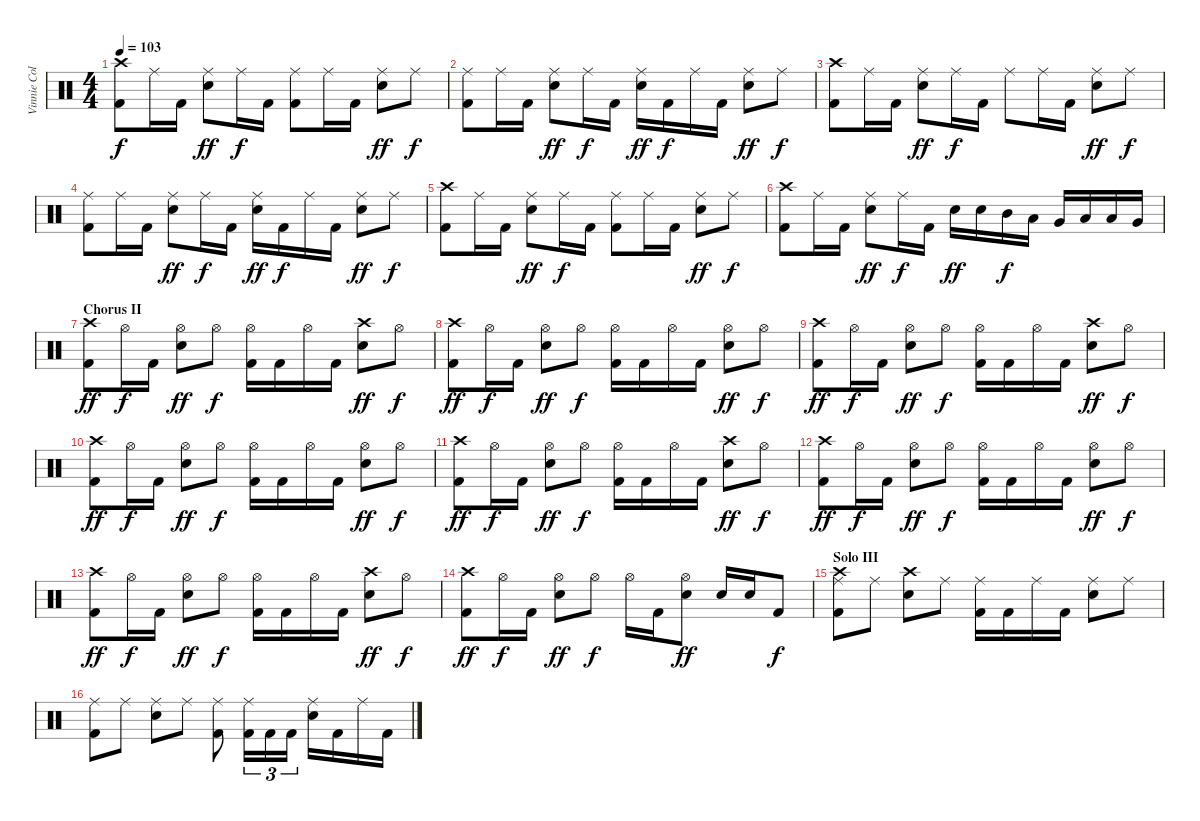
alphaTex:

\track ("Vinnie Colaiuta" "Vinnie Col") {instrument percussion}
\staff {score}
\articulation defaults
\ts (4 4)
\tempo 103
\clef neutral
\ks c
("Crash high (hit)" "Kick (hit) 2").8{dy f} "Ride (middle)".16 "Kick (hit) 2".16 ("Ride (middle)" "Electric Snare (hit)").8{dy ff} "Ride (middle)".16{dy f} "Kick (hit) 2".16 ("Ride (middle)" "Kick (hit) 2").8 "Ride (middle)".16 "Kick (hit) 2".16 ("Ride (middle)" "Electric Snare (hit)").8{dy ff} "Ride (middle)".8{dy f} |
("Ride (middle)" "Kick (hit) 2").8 "Ride (middle)".16 "Kick (hit) 2".16 ("Ride (middle)" "Electric Snare (hit)").8{dy ff} "Ride (middle)".16{dy f} "Kick (hit) 2".16 ("Ride (middle)" "Electric Snare (hit)").16{dy ff} "Kick (hit) 2".16{dy f} "Ride (middle)".16 "Kick (hit) 2".16 ("Ride (middle)" "Electric Snare (hit)").8{dy ff} "Ride (middle)".8{dy f} |
("Crash high (hit)" "Kick (hit) 2").8 "Ride (middle)".16 "Kick (hit) 2".16 ("Ride (middle)" "Electric Snare (hit)").8{dy ff} "Ride (middle)".16{dy f} "Kick (hit) 2".16 "Ride (middle)".8 "Ride (middle)".16 "Kick (hit) 2".16 ("Ride (middle)" "Electric Snare (hit)").8{dy ff} "Ride (middle)".8{dy f} |
("Ride (middle)" "Kick (hit) 2").8 "Ride (middle)".16 "Kick (hit) 2".16 ("Ride (middle)" "Electric Snare (hit)").8{dy ff} "Ride (middle)".16{dy f} "Kick (hit) 2".16 ("Ride (middle)" "Electric Snare (hit)").16{dy ff} "Kick (hit) 2".16{dy f} "Ride (middle)".16 "Kick (hit) 2".16 ("Ride (middle)" "Electric Snare (hit)").8{dy ff} "Ride (middle)".8{dy f} |
("Crash high (hit)" "Kick (hit) 2").8 "Ride (middle)".16 "Kick (hit) 2".16 ("Ride (middle)" "Electric Snare (hit)").8{dy ff} "Ride (middle)".16{dy f} "Kick (hit) 2".16 ("Ride (middle)" "Kick (hit) 2").8 "Ride (middle)".16 "Kick (hit) 2".16 ("Ride (middle)" "Electric Snare (hit)").8{dy ff} "Ride (middle)".8{dy f} |
("Crash high (hit)" "Kick (hit) 2").8 "Ride (middle)".16 "Kick (hit) 2".16 ("Ride (middle)" "Electric Snare (hit)").8{dy ff} "Ride (middle)".16{dy f} "Kick (hit) 2".16 "Electric Snare (hit)".16{dy ff} "Electric Snare (hit)".16 "Mid Tom (hit)".16{dy f} "Low Tom (hit)".16 "Very Low Tom (hit)".16 "Low Floor Tom (hit)".16 "Low Tom (hit)".16 "Very Low Tom (hit)".16 |
\section ("" "Chorus II")
("Crash high (hit)" "Kick (hit) 2").8{dy ff} "Hi-Hat (open)".16{dy f} "Kick (hit) 2".16 ("Hi-Hat (open)" "Electric Snare (hit)").8{dy ff} "Hi-Hat (open)".8{dy f} ("Hi-Hat (open)" "Kick (hit) 2").16 "Kick (hit) 2".16 "Hi-Hat (open)".16 "Kick (hit) 2".16 ("Crash high (hit)" "Electric Snare (hit)").8{dy ff} "Hi-Hat (open)".8{dy f} |
("Crash high (hit)" "Kick (hit) 2").8{dy ff} "Hi-Hat (open)".16{dy f} "Kick (hit) 2".16 ("Hi-Hat (open)" "Electric Snare (hit)").8{dy ff} "Hi-Hat (open)".8{dy f} ("Hi-Hat (open)" "Kick (hit) 2").16 "Kick (hit) 2".16 "Hi-Hat (open)".16 "Kick (hit) 2".16 ("Hi-Hat (open)" "Electric Snare (hit)").8{dy ff} "Hi-Hat (open)".8{dy f} |
("Crash high (hit)" "Kick (hit) 2").8{dy ff} "Hi-Hat (open)".16{dy f} "Kick (hit) 2".16 ("Hi-Hat (open)" "Electric Snare (hit)").8{dy ff} "Hi-Hat (open)".8{dy f} ("Hi-Hat (open)" "Kick (hit) 2").16 "Kick (hit) 2".16 "Hi-Hat (open)".16 "Kick (hit) 2".16 ("Crash high (hit)" "Electric Snare (hit)").8{dy ff} "Hi-Hat (open)".8{dy f} |
("Crash high (hit)" "Kick (hit) 2").8{dy ff} "Hi-Hat (open)".16{dy f} "Kick (hit) 2".16 ("Hi-Hat (open)" "Electric Snare (hit)").8{dy ff} "Hi-Hat (open)".8{dy f} ("Hi-Hat (open)" "Kick (hit) 2").16 "Kick (hit) 2".16 "Hi-Hat (open)".16 "Kick (hit) 2".16 ("Hi-Hat (open)" "Electric Snare (hit)").8{dy ff} "Hi-Hat (open)".8{dy f} |
("Crash high (hit)" "Kick (hit) 2").8{dy ff} "Hi-Hat (open)".16{dy f} "Kick (hit) 2".16 ("Hi-Hat (open)" "Electric Snare (hit)").8{dy ff} "Hi-Hat (open)".8{dy f} ("Hi-Hat (open)" "Kick (hit) 2").16 "Kick (hit) 2".16 "Hi-Hat (open)".16 "Kick (hit) 2".16 ("Crash high (hit)" "Electric Snare (hit)").8{dy ff} "Hi-Hat (open)".8{dy f} |
("Crash high (hit)" "Kick (hit) 2").8{dy ff} "Hi-Hat (open)".16{dy f} "Kick (hit) 2".16 ("Hi-Hat (open)" "Electric Snare (hit)").8{dy ff} "Hi-Hat (open)".8{dy f} ("Hi-Hat (open)" "Kick (hit) 2").16 "Kick (hit) 2".16 "Hi-Hat (open)".16 "Kick (hit) 2".16 ("Hi-Hat (open)" "Electric Snare (hit)").8{dy ff} "Hi-Hat (open)".8{dy f} |
("Crash high (hit)" "Kick (hit) 2").8{dy ff} "Hi-Hat (open)".16{dy f} "Kick (hit) 2".16 ("Hi-Hat (open)" "Electric Snare (hit)").8{dy ff} "Hi-Hat (open)".8{dy f} ("Hi-Hat (open)" "Kick (hit) 2").16 "Kick (hit) 2".16 "Hi-Hat (open)".16 "Kick (hit) 2".16 ("Crash high (hit)" "Electric Snare (hit)").8{dy ff} "Hi-Hat (open)".8{dy f} |
("Crash high (hit)" "Kick (hit) 2").8{dy ff} "Hi-Hat (open)".16{dy f} "Kick (hit) 2".16 ("Hi-Hat (open)" "Electric Snare (hit)").8{dy ff} "Hi-Hat (open)".8{dy f} "Hi-Hat (open)".16 "Kick (hit) 2".16 ("Hi-Hat (open)" "Electric Snare (hit)").8{dy ff} "Electric Snare (hit)".16 "Electric Snare (hit)".16 "Kick (hit) 2".8{dy f} |
\section ("" "Solo III")
("Crash high (hit)" "Ride (middle)" "Kick (hit) 2").8 "Ride (middle)".8 ("Crash high (hit)" "Electric Snare (hit)").8 "Ride (middle)".8 ("Ride (middle)" "Kick (hit) 2").16 "Kick (hit) 2".16 "Ride (middle)".16 "Kick (hit) 2".16 ("Ride (middle)" "Electric Snare (hit)").8 "Ride (middle)".8 |
("Ride (middle)" "Kick (hit) 2").8 "Ride (middle)".8 ("Ride (middle)" "Electric Snare (hit)").8 "Ride (middle)".8 ("Ride (middle)" "Kick (hit) 2").8 ("Ride (middle)" "Kick (hit) 2").16{tu (3 2)} "Kick (hit) 2".16{tu (3 2)} "Kick (hit) 2".16{tu (3 2)} ("Ride (middle)" "Electric Snare (hit)").16 "Kick (hit) 2".16 "Ride (middle)".16 "Kick (hit) 2".16
